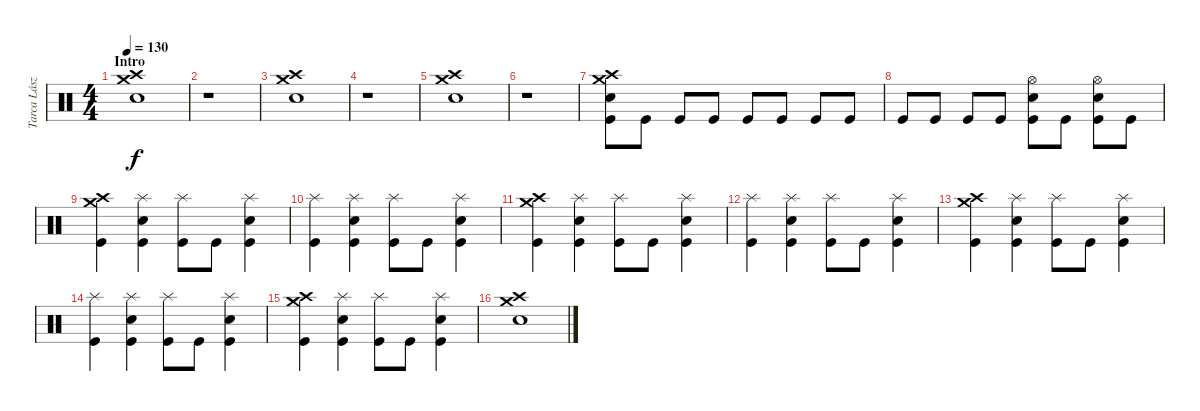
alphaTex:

\track ("Tarca László" "Tarca Lász") {instrument percussion}
\staff {score}
\articulation defaults
\ts (4 4)
\section ("" "Intro")
\tempo 130
\clef neutral
\ks c
("Crash high (hit)" "Crash medium (hit)" "Snare (hit) 2").1{dy f} |
r.1 |
("Crash high (hit)" "Crash medium (hit)" "Snare (hit) 2").1 |
r.1 |
("Crash high (hit)" "Crash medium (hit)" "Snare (hit) 2").1 |
r.1 |
("Crash high (hit)" "Crash medium (hit)" "Snare (hit) 2" "Kick (hit)").8 "Kick (hit)".8 "Kick (hit)".8 "Kick (hit)".8 "Kick (hit)".8 "Kick (hit)".8 "Kick (hit)".8 "Kick (hit)".8 |
"Kick (hit)".8 "Kick (hit)".8 "Kick (hit)".8 "Kick (hit)".8 ("Hi-Hat (open)" "Snare (hit) 2" "Kick (hit)").8 "Kick (hit)".8 ("Hi-Hat (open)" "Snare (hit) 2" "Kick (hit)").8 "Kick (hit)".8 |
("Crash high (hit)" "Crash medium (hit)" "Kick (hit)").4 ("Splash (hit)" "Snare (hit) 2" "Kick (hit)").4 ("Splash (hit)" "Kick (hit)").8 "Kick (hit)".8 ("Splash (hit)" "Snare (hit) 2" "Kick (hit)").4 |
("Splash (hit)" "Kick (hit)").4 ("Splash (hit)" "Snare (hit) 2" "Kick (hit)").4 ("Splash (hit)" "Kick (hit)").8 "Kick (hit)".8 ("Splash (hit)" "Snare (hit) 2" "Kick (hit)").4 |
("Crash high (hit)" "Crash medium (hit)" "Kick (hit)").4 ("Splash (hit)" "Snare (hit) 2" "Kick (hit)").4 ("Splash (hit)" "Kick (hit)").8 "Kick (hit)".8 ("Splash (hit)" "Snare (hit) 2" "Kick (hit)").4 |
("Splash (hit)" "Kick (hit)").4 ("Splash (hit)" "Snare (hit) 2" "Kick (hit)").4 ("Splash (hit)" "Kick (hit)").8 "Kick (hit)".8 ("Splash (hit)" "Snare (hit) 2" "Kick (hit)").4 |
("Crash high (hit)" "Crash medium (hit)" "Kick (hit)").4 ("Splash (hit)" "Snare (hit) 2" "Kick (hit)").4 ("Splash (hit)" "Kick (hit)").8 "Kick (hit)".8 ("Splash (hit)" "Snare (hit) 2" "Kick (hit)").4 |
("Splash (hit)" "Kick (hit)").4 ("Splash (hit)" "Snare (hit) 2" "Kick (hit)").4 ("Splash (hit)" "Kick (hit)").8 "Kick (hit)".8 ("Splash (hit)" "Snare (hit) 2" "Kick (hit)").4 |
("Crash high (hit)" "Crash medium (hit)" "Kick (hit)").4 ("Splash (hit)" "Snare (hit) 2" "Kick (hit)").4 ("Splash (hit)" "Kick (hit)").8 "Kick (hit)".8 ("Splash (hit)" "Snare (hit) 2" "Kick (hit)").4 |
("Crash high (hit)" "Crash medium (hit)" "Snare (hit) 2").1
